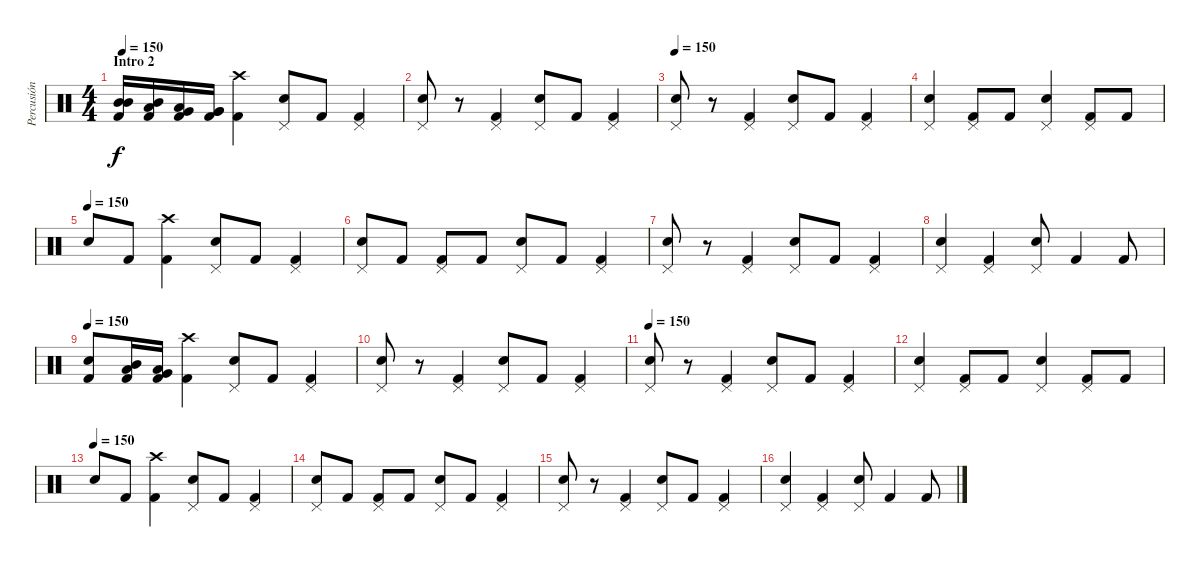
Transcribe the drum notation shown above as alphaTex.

\track ("Percusión" "Percusión") {instrument percussion}
\staff {score}
\articulation defaults
\ts (4 4)
\section ("" "Intro 2")
\tempo 150
\clef neutral
\ks c
("Mid Tom (hit)" "Mid Tom (hit)" "Kick (hit) 2").16{dy f} ("Mid Tom (hit)" "Low Tom (hit)" "Kick (hit) 2").16 ("Low Tom (hit)" "Very Low Tom (hit)" "Kick (hit) 2").16 ("Very Low Tom (hit)" "Very Low Tom (hit)" "Kick (hit) 2").16 ("Crash high (hit)" "Kick (hit) 2").4 ("Pedal Hi-Hat (hit)" "Electric Snare (hit)").8 "Kick (hit) 2".8 ("Pedal Hi-Hat (hit)" "Kick (hit) 2").4 |
("Pedal Hi-Hat (hit)" "Electric Snare (hit)").8 r.8 ("Pedal Hi-Hat (hit)" "Kick (hit) 2").4 ("Pedal Hi-Hat (hit)" "Electric Snare (hit)").8 "Kick (hit) 2".8 ("Pedal Hi-Hat (hit)" "Kick (hit) 2").4 |
\tempo 150
("Pedal Hi-Hat (hit)" "Electric Snare (hit)").8 r.8 ("Pedal Hi-Hat (hit)" "Kick (hit) 2").4 ("Pedal Hi-Hat (hit)" "Electric Snare (hit)").8 "Kick (hit) 2".8 ("Pedal Hi-Hat (hit)" "Kick (hit) 2").4 |
("Pedal Hi-Hat (hit)" "Electric Snare (hit)").4 ("Pedal Hi-Hat (hit)" "Kick (hit) 2").8 "Kick (hit) 2".8 ("Pedal Hi-Hat (hit)" "Electric Snare (hit)").4 ("Pedal Hi-Hat (hit)" "Kick (hit) 2").8 "Kick (hit) 2".8 |
\tempo (150)
"Electric Snare (hit)".8 "Kick (hit) 2".8 ("Crash high (hit)" "Kick (hit) 2").4 ("Pedal Hi-Hat (hit)" "Electric Snare (hit)").8 "Kick (hit) 2".8 ("Pedal Hi-Hat (hit)" "Kick (hit) 2").4 |
("Pedal Hi-Hat (hit)" "Electric Snare (hit)").8 "Kick (hit) 2".8 ("Pedal Hi-Hat (hit)" "Kick (hit) 2").8 "Kick (hit) 2".8 ("Pedal Hi-Hat (hit)" "Electric Snare (hit)").8 "Kick (hit) 2".8 ("Pedal Hi-Hat (hit)" "Kick (hit) 2").4 |
("Pedal Hi-Hat (hit)" "Electric Snare (hit)").8 r.8 ("Pedal Hi-Hat (hit)" "Kick (hit) 2").4 ("Pedal Hi-Hat (hit)" "Electric Snare (hit)").8 "Kick (hit) 2".8 ("Pedal Hi-Hat (hit)" "Kick (hit) 2").4 |
("Pedal Hi-Hat (hit)" "Electric Snare (hit)").4 ("Pedal Hi-Hat (hit)" "Kick (hit) 2").4 ("Pedal Hi-Hat (hit)" "Electric Snare (hit)").8 "Kick (hit) 2".4 "Kick (hit) 2".8 |
\tempo 150
("Electric Snare (hit)" "Kick (hit) 2").8 ("Mid Tom (hit)" "Low Tom (hit)" "Kick (hit) 2").16 ("Low Tom (hit)" "Very Low Tom (hit)" "Kick (hit) 2").16 ("Crash high (hit)" "Kick (hit) 2").4 ("Pedal Hi-Hat (hit)" "Electric Snare (hit)").8 "Kick (hit) 2".8 ("Pedal Hi-Hat (hit)" "Kick (hit) 2").4 |
("Pedal Hi-Hat (hit)" "Electric Snare (hit)").8 r.8 ("Pedal Hi-Hat (hit)" "Kick (hit) 2").4 ("Pedal Hi-Hat (hit)" "Electric Snare (hit)").8 "Kick (hit) 2".8 ("Pedal Hi-Hat (hit)" "Kick (hit) 2").4 |
\tempo 150
("Pedal Hi-Hat (hit)" "Electric Snare (hit)").8 r.8 ("Pedal Hi-Hat (hit)" "Kick (hit) 2").4 ("Pedal Hi-Hat (hit)" "Electric Snare (hit)").8 "Kick (hit) 2".8 ("Pedal Hi-Hat (hit)" "Kick (hit) 2").4 |
("Pedal Hi-Hat (hit)" "Electric Snare (hit)").4 ("Pedal Hi-Hat (hit)" "Kick (hit) 2").8 "Kick (hit) 2".8 ("Pedal Hi-Hat (hit)" "Electric Snare (hit)").4 ("Pedal Hi-Hat (hit)" "Kick (hit) 2").8 "Kick (hit) 2".8 |
\tempo (150)
"Electric Snare (hit)".8 "Kick (hit) 2".8 ("Crash high (hit)" "Kick (hit) 2").4 ("Pedal Hi-Hat (hit)" "Electric Snare (hit)").8 "Kick (hit) 2".8 ("Pedal Hi-Hat (hit)" "Kick (hit) 2").4 |
("Pedal Hi-Hat (hit)" "Electric Snare (hit)").8 "Kick (hit) 2".8 ("Pedal Hi-Hat (hit)" "Kick (hit) 2").8 "Kick (hit) 2".8 ("Pedal Hi-Hat (hit)" "Electric Snare (hit)").8 "Kick (hit) 2".8 ("Pedal Hi-Hat (hit)" "Kick (hit) 2").4 |
("Pedal Hi-Hat (hit)" "Electric Snare (hit)").8 r.8 ("Pedal Hi-Hat (hit)" "Kick (hit) 2").4 ("Pedal Hi-Hat (hit)" "Electric Snare (hit)").8 "Kick (hit) 2".8 ("Pedal Hi-Hat (hit)" "Kick (hit) 2").4 |
("Pedal Hi-Hat (hit)" "Electric Snare (hit)").4 ("Pedal Hi-Hat (hit)" "Kick (hit) 2").4 ("Pedal Hi-Hat (hit)" "Electric Snare (hit)").8 "Kick (hit) 2".4 "Kick (hit) 2".8
